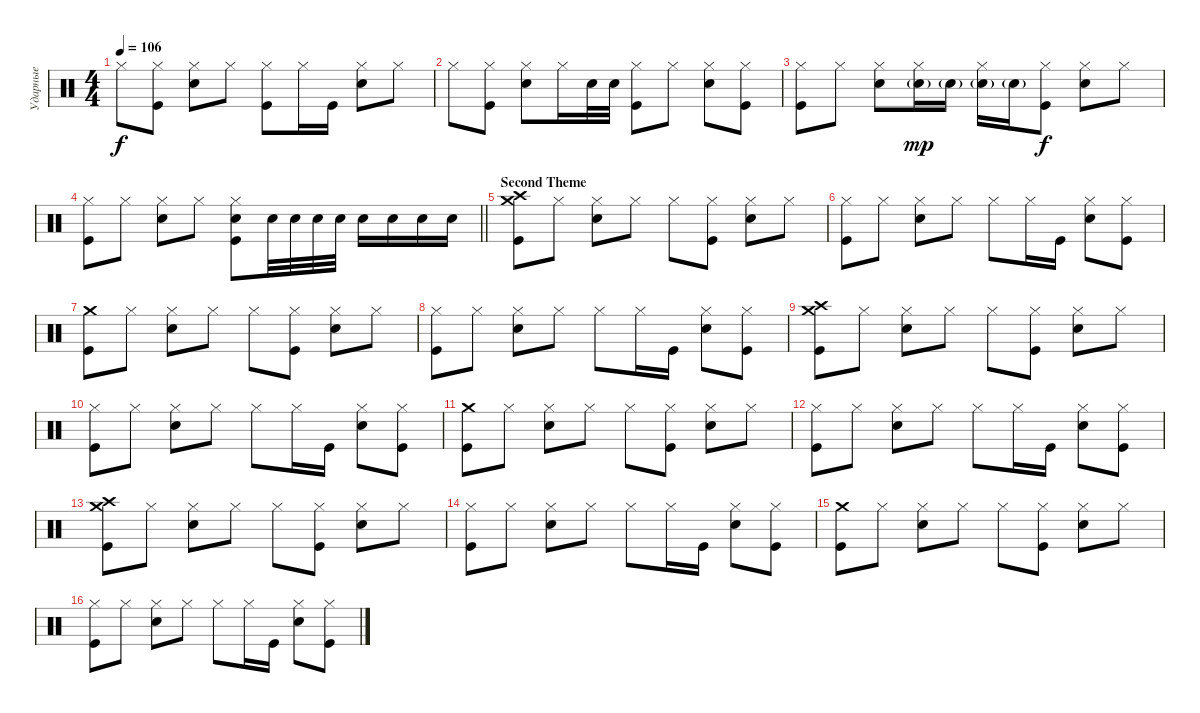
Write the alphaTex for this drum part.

\track ("Ударные" "Ударные") {instrument percussion}
\staff {score}
\articulation defaults
\ts (4 4)
\tempo 106
\clef neutral
\ks c "Hi-Hat (closed)".8{dy f}
("Hi-Hat (closed)" "Kick (hit)").8 ("Hi-Hat (closed)" "Snare (hit) 2").8 "Hi-Hat (closed)".8 ("Hi-Hat (closed)" "Kick (hit)").8 "Hi-Hat (closed)".16 "Kick (hit)".16 ("Hi-Hat (closed)" "Snare (hit) 2").8 "Hi-Hat (closed)".8 |
"Hi-Hat (closed)".8 ("Hi-Hat (closed)" "Kick (hit)").8 ("Hi-Hat (closed)" "Snare (hit) 2").8 "Hi-Hat (closed)".16 "Snare (hit) 2".32 "Snare (hit) 2".32 ("Hi-Hat (closed)" "Kick (hit)").8 "Hi-Hat (closed)".8 ("Hi-Hat (closed)" "Snare (hit) 2").8 ("Hi-Hat (closed)" "Kick (hit)").8 |
("Hi-Hat (closed)" "Kick (hit)").8 "Hi-Hat (closed)".8 ("Hi-Hat (closed)" "Snare (hit) 2").8 ("Hi-Hat (closed)" "Snare (hit) 2"{g}).16{dy mp} "Snare (hit) 2"{g}.16 ("Hi-Hat (closed)" "Snare (hit) 2"{g}).16 "Snare (hit) 2"{g}.16 ("Hi-Hat (closed)" "Kick (hit)").8{dy f} ("Hi-Hat (closed)" "Snare (hit) 2").8 "Hi-Hat (closed)".8 |
\barLineRight lightlight
("Hi-Hat (closed)" "Kick (hit)").8 "Hi-Hat (closed)".8 ("Hi-Hat (closed)" "Snare (hit) 2").8 "Hi-Hat (closed)".8 ("Hi-Hat (closed)" "Snare (hit) 2" "Kick (hit)").8 "Snare (hit) 2".32 "Snare (hit) 2".32 "Snare (hit) 2".32 "Snare (hit) 2".32 "Snare (hit) 2".16 "Snare (hit) 2".16 "Snare (hit) 2".16 "Snare (hit) 2".16 |
\section ("" "Second Theme")
("Crash high (hit)" "Crash medium (hit)" "Kick (hit)").8 "Hi-Hat (closed)".8 ("Hi-Hat (closed)" "Snare (hit) 2").8 "Hi-Hat (closed)".8 "Hi-Hat (closed)".8 ("Hi-Hat (closed)" "Kick (hit)").8 ("Hi-Hat (closed)" "Snare (hit) 2").8 "Hi-Hat (closed)".8 |
("Hi-Hat (closed)" "Kick (hit)").8 "Hi-Hat (closed)".8 ("Hi-Hat (closed)" "Snare (hit) 2").8 "Hi-Hat (closed)".8 "Hi-Hat (closed)".8 "Hi-Hat (closed)".16 "Kick (hit)".16 ("Hi-Hat (closed)" "Snare (hit) 2").8 ("Hi-Hat (closed)" "Kick (hit)").8 |
("Crash medium (hit)" "Kick (hit)").8 "Hi-Hat (closed)".8 ("Hi-Hat (closed)" "Snare (hit) 2").8 "Hi-Hat (closed)".8 "Hi-Hat (closed)".8 ("Hi-Hat (closed)" "Kick (hit)").8 ("Hi-Hat (closed)" "Snare (hit) 2").8 "Hi-Hat (closed)".8 |
("Hi-Hat (closed)" "Kick (hit)").8 "Hi-Hat (closed)".8 ("Hi-Hat (closed)" "Snare (hit) 2").8 "Hi-Hat (closed)".8 "Hi-Hat (closed)".8 "Hi-Hat (closed)".16 "Kick (hit)".16 ("Hi-Hat (closed)" "Snare (hit) 2").8 ("Hi-Hat (closed)" "Kick (hit)").8 |
("Crash high (hit)" "Crash medium (hit)" "Kick (hit)").8 "Hi-Hat (closed)".8 ("Hi-Hat (closed)" "Snare (hit) 2").8 "Hi-Hat (closed)".8 "Hi-Hat (closed)".8 ("Hi-Hat (closed)" "Kick (hit)").8 ("Hi-Hat (closed)" "Snare (hit) 2").8 "Hi-Hat (closed)".8 |
("Hi-Hat (closed)" "Kick (hit)").8 "Hi-Hat (closed)".8 ("Hi-Hat (closed)" "Snare (hit) 2").8 "Hi-Hat (closed)".8 "Hi-Hat (closed)".8 "Hi-Hat (closed)".16 "Kick (hit)".16 ("Hi-Hat (closed)" "Snare (hit) 2").8 ("Hi-Hat (closed)" "Kick (hit)").8 |
("Crash medium (hit)" "Kick (hit)").8 "Hi-Hat (closed)".8 ("Hi-Hat (closed)" "Snare (hit) 2").8 "Hi-Hat (closed)".8 "Hi-Hat (closed)".8 ("Hi-Hat (closed)" "Kick (hit)").8 ("Hi-Hat (closed)" "Snare (hit) 2").8 "Hi-Hat (closed)".8 |
("Hi-Hat (closed)" "Kick (hit)").8 "Hi-Hat (closed)".8 ("Hi-Hat (closed)" "Snare (hit) 2").8 "Hi-Hat (closed)".8 "Hi-Hat (closed)".8 "Hi-Hat (closed)".16 "Kick (hit)".16 ("Hi-Hat (closed)" "Snare (hit) 2").8 ("Hi-Hat (closed)" "Kick (hit)").8 |
("Crash high (hit)" "Crash medium (hit)" "Kick (hit)").8 "Hi-Hat (closed)".8 ("Hi-Hat (closed)" "Snare (hit) 2").8 "Hi-Hat (closed)".8 "Hi-Hat (closed)".8 ("Hi-Hat (closed)" "Kick (hit)").8 ("Hi-Hat (closed)" "Snare (hit) 2").8 "Hi-Hat (closed)".8 |
("Hi-Hat (closed)" "Kick (hit)").8 "Hi-Hat (closed)".8 ("Hi-Hat (closed)" "Snare (hit) 2").8 "Hi-Hat (closed)".8 "Hi-Hat (closed)".8 "Hi-Hat (closed)".16 "Kick (hit)".16 ("Hi-Hat (closed)" "Snare (hit) 2").8 ("Hi-Hat (closed)" "Kick (hit)").8 |
("Crash medium (hit)" "Kick (hit)").8 "Hi-Hat (closed)".8 ("Hi-Hat (closed)" "Snare (hit) 2").8 "Hi-Hat (closed)".8 "Hi-Hat (closed)".8 ("Hi-Hat (closed)" "Kick (hit)").8 ("Hi-Hat (closed)" "Snare (hit) 2").8 "Hi-Hat (closed)".8 |
("Hi-Hat (closed)" "Kick (hit)").8 "Hi-Hat (closed)".8 ("Hi-Hat (closed)" "Snare (hit) 2").8 "Hi-Hat (closed)".8 "Hi-Hat (closed)".8 "Hi-Hat (closed)".16 "Kick (hit)".16 ("Hi-Hat (closed)" "Snare (hit) 2").8 ("Hi-Hat (closed)" "Kick (hit)").8
